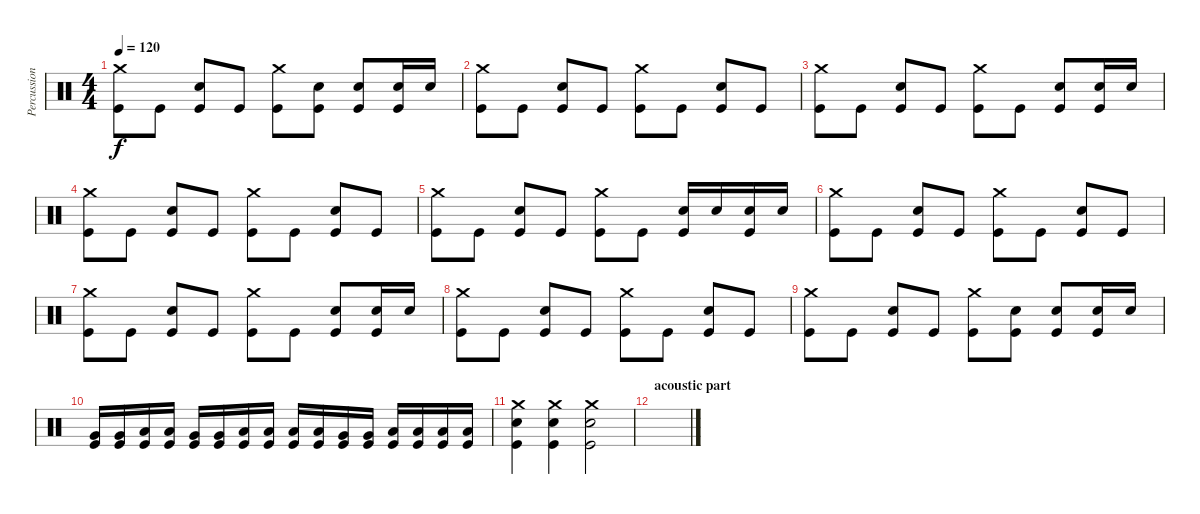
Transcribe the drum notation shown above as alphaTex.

\track ("Percussion" "Percussion") {instrument percussion}
\staff {score}
\articulation defaults
\ts (4 4)
\tempo 120
\clef neutral
\ks c
("Crash medium (hit)" "Kick (hit)").8{dy f} "Kick (hit)".8 ("Snare (hit) 2" "Kick (hit)").8 "Kick (hit)".8 ("Crash medium (hit)" "Kick (hit)").8 ("Snare (hit) 2" "Kick (hit)").8 ("Snare (hit) 2" "Kick (hit)").8 ("Snare (hit) 2" "Kick (hit)").16 "Snare (hit) 2".16 |
("Crash medium (hit)" "Kick (hit)").8 "Kick (hit)".8 ("Snare (hit) 2" "Kick (hit)").8 "Kick (hit)".8 ("Crash medium (hit)" "Kick (hit)").8 "Kick (hit)".8 ("Snare (hit) 2" "Kick (hit)").8 "Kick (hit)".8 |
("Crash medium (hit)" "Kick (hit)").8 "Kick (hit)".8 ("Snare (hit) 2" "Kick (hit)").8 "Kick (hit)".8 ("Crash medium (hit)" "Kick (hit)").8 "Kick (hit)".8 ("Snare (hit) 2" "Kick (hit)").8 ("Snare (hit) 2" "Kick (hit)").16 "Snare (hit) 2".16 |
("Crash medium (hit)" "Kick (hit)").8 "Kick (hit)".8 ("Snare (hit) 2" "Kick (hit)").8 "Kick (hit)".8 ("Crash medium (hit)" "Kick (hit)").8 "Kick (hit)".8 ("Snare (hit) 2" "Kick (hit)").8 "Kick (hit)".8 |
("Crash medium (hit)" "Kick (hit)").8 "Kick (hit)".8 ("Snare (hit) 2" "Kick (hit)").8 "Kick (hit)".8 ("Crash medium (hit)" "Kick (hit)").8 "Kick (hit)".8 ("Snare (hit) 2" "Kick (hit)").16 "Snare (hit) 2".16 ("Snare (hit) 2" "Kick (hit)").16 "Snare (hit) 2".16 |
("Crash medium (hit)" "Kick (hit)").8 "Kick (hit)".8 ("Snare (hit) 2" "Kick (hit)").8 "Kick (hit)".8 ("Crash medium (hit)" "Kick (hit)").8 "Kick (hit)".8 ("Snare (hit) 2" "Kick (hit)").8 "Kick (hit)".8 |
("Crash medium (hit)" "Kick (hit)").8 "Kick (hit)".8 ("Snare (hit) 2" "Kick (hit)").8 "Kick (hit)".8 ("Crash medium (hit)" "Kick (hit)").8 "Kick (hit)".8 ("Snare (hit) 2" "Kick (hit)").8 ("Snare (hit) 2" "Kick (hit)").16 "Snare (hit) 2".16 |
("Crash medium (hit)" "Kick (hit)").8 "Kick (hit)".8 ("Snare (hit) 2" "Kick (hit)").8 "Kick (hit)".8 ("Crash medium (hit)" "Kick (hit)").8 "Kick (hit)".8 ("Snare (hit) 2" "Kick (hit)").8 "Kick (hit)".8 |
("Crash medium (hit)" "Kick (hit)").8 "Kick (hit)".8 ("Snare (hit) 2" "Kick (hit)").8 "Kick (hit)".8 ("Crash medium (hit)" "Kick (hit)").8 ("Snare (hit) 2" "Kick (hit)").8 ("Snare (hit) 2" "Kick (hit)").8 ("Snare (hit) 2" "Kick (hit)").16 "Snare (hit) 2".16 |
("Very Low Tom (hit)" "Kick (hit)").16 ("Very Low Tom (hit)" "Kick (hit)").16 ("Low Floor Tom (hit)" "Kick (hit)").16 ("Low Floor Tom (hit)" "Kick (hit)").16 ("Very Low Tom (hit)" "Kick (hit)").16 ("Very Low Tom (hit)" "Kick (hit)").16 ("Low Tom (hit)" "Kick (hit)").16 ("Low Tom (hit)" "Kick (hit)").16 ("Low Floor Tom (hit)" "Kick (hit)").16 ("Low Floor Tom (hit)" "Kick (hit)").16 ("Very Low Tom (hit)" "Kick (hit)").16 ("Very Low Tom (hit)" "Kick (hit)").16 ("Low Floor Tom (hit)" "Kick (hit)").16 ("Low Floor Tom (hit)" "Kick (hit)").16 ("Low Tom (hit)" "Kick (hit)").16 ("Low Tom (hit)" "Kick (hit)").16 |
("Crash medium (hit)" "Snare (hit) 2" "Kick (hit)").4 ("Crash medium (hit)" "Snare (hit) 2" "Kick (hit)").4 ("Crash medium (hit)" "Snare (hit) 2" "Kick (hit)").2 |
\section ("" "acoustic part")
